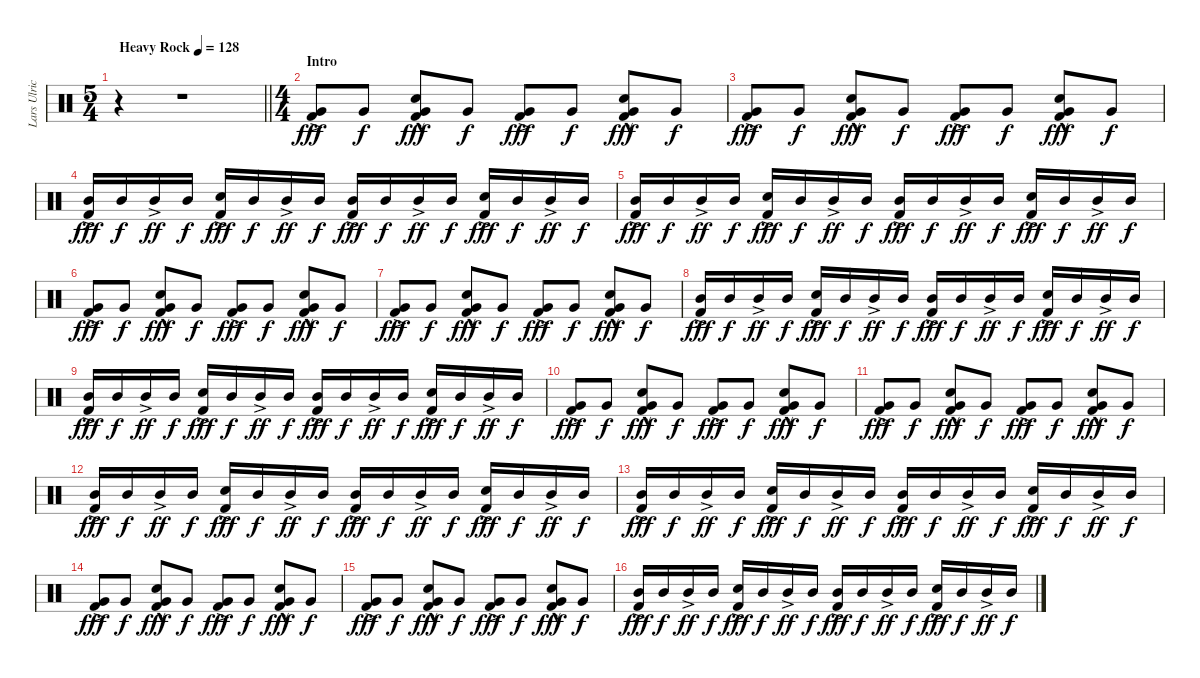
\track ("Lars Ulrich (Drums)" "Lars Ulric") {instrument percussion}
\staff {score}
\articulation defaults
\ts (5 4)
\tempo (128 "Heavy Rock")
\clef neutral
\barLineRight lightlight
\ks c
r.4{dy fff} r.1 |
\ts (4 4)
\section ("" "Intro")
("Very Low Tom (hit)"{ac} "Kick (hit) 2").8 "Very Low Tom (hit)".8{dy f} ("Electric Snare (hit)"{hac} "Very Low Tom (hit)"{hac} "Kick (hit) 2").8{dy fff} "Very Low Tom (hit)".8{dy f} ("Very Low Tom (hit)"{ac} "Kick (hit) 2").8{dy fff} "Very Low Tom (hit)".8{dy f} ("Electric Snare (hit)"{hac} "Very Low Tom (hit)"{hac} "Kick (hit) 2").8{dy fff} "Very Low Tom (hit)".8{dy f} |
("Very Low Tom (hit)"{ac} "Kick (hit) 2").8{dy fff} "Very Low Tom (hit)".8{dy f} ("Electric Snare (hit)"{hac} "Very Low Tom (hit)"{hac} "Kick (hit) 2").8{dy fff} "Very Low Tom (hit)".8{dy f} ("Very Low Tom (hit)"{ac} "Kick (hit) 2").8{dy fff} "Very Low Tom (hit)".8{dy f} ("Electric Snare (hit)"{hac} "Very Low Tom (hit)"{hac} "Kick (hit) 2").8{dy fff} "Very Low Tom (hit)".8{dy f} |
("Mid Tom (hit)"{ac} "Kick (hit) 2").16{dy fff} "Mid Tom (hit)".16{dy f} "Mid Tom (hit)"{ac}.16{dy ff} "Mid Tom (hit)".16{dy f} ("Electric Snare (hit)"{ac} "Kick (hit) 2").16{dy fff} "Mid Tom (hit)".16{dy f} "Mid Tom (hit)"{ac}.16{dy ff} "Mid Tom (hit)".16{dy f} ("Mid Tom (hit)"{ac} "Kick (hit) 2").16{dy fff} "Mid Tom (hit)".16{dy f} "Mid Tom (hit)"{ac}.16{dy ff} "Mid Tom (hit)".16{dy f} ("Electric Snare (hit)"{ac} "Kick (hit) 2").16{dy fff} "Mid Tom (hit)".16{dy f} "Mid Tom (hit)"{ac}.16{dy ff} "Mid Tom (hit)".16{dy f} |
("Mid Tom (hit)"{ac} "Kick (hit) 2").16{dy fff} "Mid Tom (hit)".16{dy f} "Mid Tom (hit)"{ac}.16{dy ff} "Mid Tom (hit)".16{dy f} ("Electric Snare (hit)"{ac} "Kick (hit) 2").16{dy fff} "Mid Tom (hit)".16{dy f} "Mid Tom (hit)"{ac}.16{dy ff} "Mid Tom (hit)".16{dy f} ("Mid Tom (hit)"{ac} "Kick (hit) 2").16{dy fff} "Mid Tom (hit)".16{dy f} "Mid Tom (hit)"{ac}.16{dy ff} "Mid Tom (hit)".16{dy f} ("Electric Snare (hit)"{ac} "Kick (hit) 2").16{dy fff} "Mid Tom (hit)".16{dy f} "Mid Tom (hit)"{ac}.16{dy ff} "Mid Tom (hit)".16{dy f} |
("Very Low Tom (hit)"{ac} "Kick (hit) 2").8{dy fff} "Very Low Tom (hit)".8{dy f} ("Electric Snare (hit)"{hac} "Very Low Tom (hit)"{hac} "Kick (hit) 2").8{dy fff} "Very Low Tom (hit)".8{dy f} ("Very Low Tom (hit)"{ac} "Kick (hit) 2").8{dy fff} "Very Low Tom (hit)".8{dy f} ("Electric Snare (hit)"{hac} "Very Low Tom (hit)"{hac} "Kick (hit) 2").8{dy fff} "Very Low Tom (hit)".8{dy f} |
("Very Low Tom (hit)"{ac} "Kick (hit) 2").8{dy fff} "Very Low Tom (hit)".8{dy f} ("Electric Snare (hit)"{hac} "Very Low Tom (hit)"{hac} "Kick (hit) 2").8{dy fff} "Very Low Tom (hit)".8{dy f} ("Very Low Tom (hit)"{ac} "Kick (hit) 2").8{dy fff} "Very Low Tom (hit)".8{dy f} ("Electric Snare (hit)"{hac} "Very Low Tom (hit)"{hac} "Kick (hit) 2").8{dy fff} "Very Low Tom (hit)".8{dy f} |
("Mid Tom (hit)"{ac} "Kick (hit) 2").16{dy fff} "Mid Tom (hit)".16{dy f} "Mid Tom (hit)"{ac}.16{dy ff} "Mid Tom (hit)".16{dy f} ("Electric Snare (hit)"{ac} "Kick (hit) 2").16{dy fff} "Mid Tom (hit)".16{dy f} "Mid Tom (hit)"{ac}.16{dy ff} "Mid Tom (hit)".16{dy f} ("Mid Tom (hit)"{ac} "Kick (hit) 2").16{dy fff} "Mid Tom (hit)".16{dy f} "Mid Tom (hit)"{ac}.16{dy ff} "Mid Tom (hit)".16{dy f} ("Electric Snare (hit)"{ac} "Kick (hit) 2").16{dy fff} "Mid Tom (hit)".16{dy f} "Mid Tom (hit)"{ac}.16{dy ff} "Mid Tom (hit)".16{dy f} |
("Mid Tom (hit)"{ac} "Kick (hit) 2").16{dy fff} "Mid Tom (hit)".16{dy f} "Mid Tom (hit)"{ac}.16{dy ff} "Mid Tom (hit)".16{dy f} ("Electric Snare (hit)"{ac} "Kick (hit) 2").16{dy fff} "Mid Tom (hit)".16{dy f} "Mid Tom (hit)"{ac}.16{dy ff} "Mid Tom (hit)".16{dy f} ("Mid Tom (hit)"{ac} "Kick (hit) 2").16{dy fff} "Mid Tom (hit)".16{dy f} "Mid Tom (hit)"{ac}.16{dy ff} "Mid Tom (hit)".16{dy f} ("Electric Snare (hit)"{ac} "Kick (hit) 2").16{dy fff} "Mid Tom (hit)".16{dy f} "Mid Tom (hit)"{ac}.16{dy ff} "Mid Tom (hit)".16{dy f} |
("Very Low Tom (hit)"{ac} "Kick (hit) 2").8{dy fff} "Very Low Tom (hit)".8{dy f} ("Electric Snare (hit)"{hac} "Very Low Tom (hit)"{hac} "Kick (hit) 2").8{dy fff} "Very Low Tom (hit)".8{dy f} ("Very Low Tom (hit)"{ac} "Kick (hit) 2").8{dy fff} "Very Low Tom (hit)".8{dy f} ("Electric Snare (hit)"{hac} "Very Low Tom (hit)"{hac} "Kick (hit) 2").8{dy fff} "Very Low Tom (hit)".8{dy f} |
("Very Low Tom (hit)"{ac} "Kick (hit) 2").8{dy fff} "Very Low Tom (hit)".8{dy f} ("Electric Snare (hit)"{hac} "Very Low Tom (hit)"{hac} "Kick (hit) 2").8{dy fff} "Very Low Tom (hit)".8{dy f} ("Very Low Tom (hit)"{ac} "Kick (hit) 2").8{dy fff} "Very Low Tom (hit)".8{dy f} ("Electric Snare (hit)"{hac} "Very Low Tom (hit)"{hac} "Kick (hit) 2").8{dy fff} "Very Low Tom (hit)".8{dy f} |
("Mid Tom (hit)"{ac} "Kick (hit) 2").16{dy fff} "Mid Tom (hit)".16{dy f} "Mid Tom (hit)"{ac}.16{dy ff} "Mid Tom (hit)".16{dy f} ("Electric Snare (hit)"{ac} "Kick (hit) 2").16{dy fff} "Mid Tom (hit)".16{dy f} "Mid Tom (hit)"{ac}.16{dy ff} "Mid Tom (hit)".16{dy f} ("Mid Tom (hit)"{ac} "Kick (hit) 2").16{dy fff} "Mid Tom (hit)".16{dy f} "Mid Tom (hit)"{ac}.16{dy ff} "Mid Tom (hit)".16{dy f} ("Electric Snare (hit)"{ac} "Kick (hit) 2").16{dy fff} "Mid Tom (hit)".16{dy f} "Mid Tom (hit)"{ac}.16{dy ff} "Mid Tom (hit)".16{dy f} |
("Mid Tom (hit)"{ac} "Kick (hit) 2").16{dy fff} "Mid Tom (hit)".16{dy f} "Mid Tom (hit)"{ac}.16{dy ff} "Mid Tom (hit)".16{dy f} ("Electric Snare (hit)"{ac} "Kick (hit) 2").16{dy fff} "Mid Tom (hit)".16{dy f} "Mid Tom (hit)"{ac}.16{dy ff} "Mid Tom (hit)".16{dy f} ("Mid Tom (hit)"{ac} "Kick (hit) 2").16{dy fff} "Mid Tom (hit)".16{dy f} "Mid Tom (hit)"{ac}.16{dy ff} "Mid Tom (hit)".16{dy f} ("Electric Snare (hit)"{ac} "Kick (hit) 2").16{dy fff} "Mid Tom (hit)".16{dy f} "Mid Tom (hit)"{ac}.16{dy ff} "Mid Tom (hit)".16{dy f} |
("Very Low Tom (hit)"{ac} "Kick (hit) 2").8{dy fff} "Very Low Tom (hit)".8{dy f} ("Electric Snare (hit)"{hac} "Very Low Tom (hit)"{hac} "Kick (hit) 2").8{dy fff} "Very Low Tom (hit)".8{dy f} ("Very Low Tom (hit)"{ac} "Kick (hit) 2").8{dy fff} "Very Low Tom (hit)".8{dy f} ("Electric Snare (hit)"{hac} "Very Low Tom (hit)"{hac} "Kick (hit) 2").8{dy fff} "Very Low Tom (hit)".8{dy f} |
("Very Low Tom (hit)"{ac} "Kick (hit) 2").8{dy fff} "Very Low Tom (hit)".8{dy f} ("Electric Snare (hit)"{hac} "Very Low Tom (hit)"{hac} "Kick (hit) 2").8{dy fff} "Very Low Tom (hit)".8{dy f} ("Very Low Tom (hit)"{ac} "Kick (hit) 2").8{dy fff} "Very Low Tom (hit)".8{dy f} ("Electric Snare (hit)"{hac} "Very Low Tom (hit)"{hac} "Kick (hit) 2").8{dy fff} "Very Low Tom (hit)".8{dy f} |
("Mid Tom (hit)"{ac} "Kick (hit) 2").16{dy fff} "Mid Tom (hit)".16{dy f} "Mid Tom (hit)"{ac}.16{dy ff} "Mid Tom (hit)".16{dy f} ("Electric Snare (hit)"{ac} "Kick (hit) 2").16{dy fff} "Mid Tom (hit)".16{dy f} "Mid Tom (hit)"{ac}.16{dy ff} "Mid Tom (hit)".16{dy f} ("Mid Tom (hit)"{ac} "Kick (hit) 2").16{dy fff} "Mid Tom (hit)".16{dy f} "Mid Tom (hit)"{ac}.16{dy ff} "Mid Tom (hit)".16{dy f} ("Electric Snare (hit)"{ac} "Kick (hit) 2").16{dy fff} "Mid Tom (hit)".16{dy f} "Mid Tom (hit)"{ac}.16{dy ff} "Mid Tom (hit)".16{dy f}
